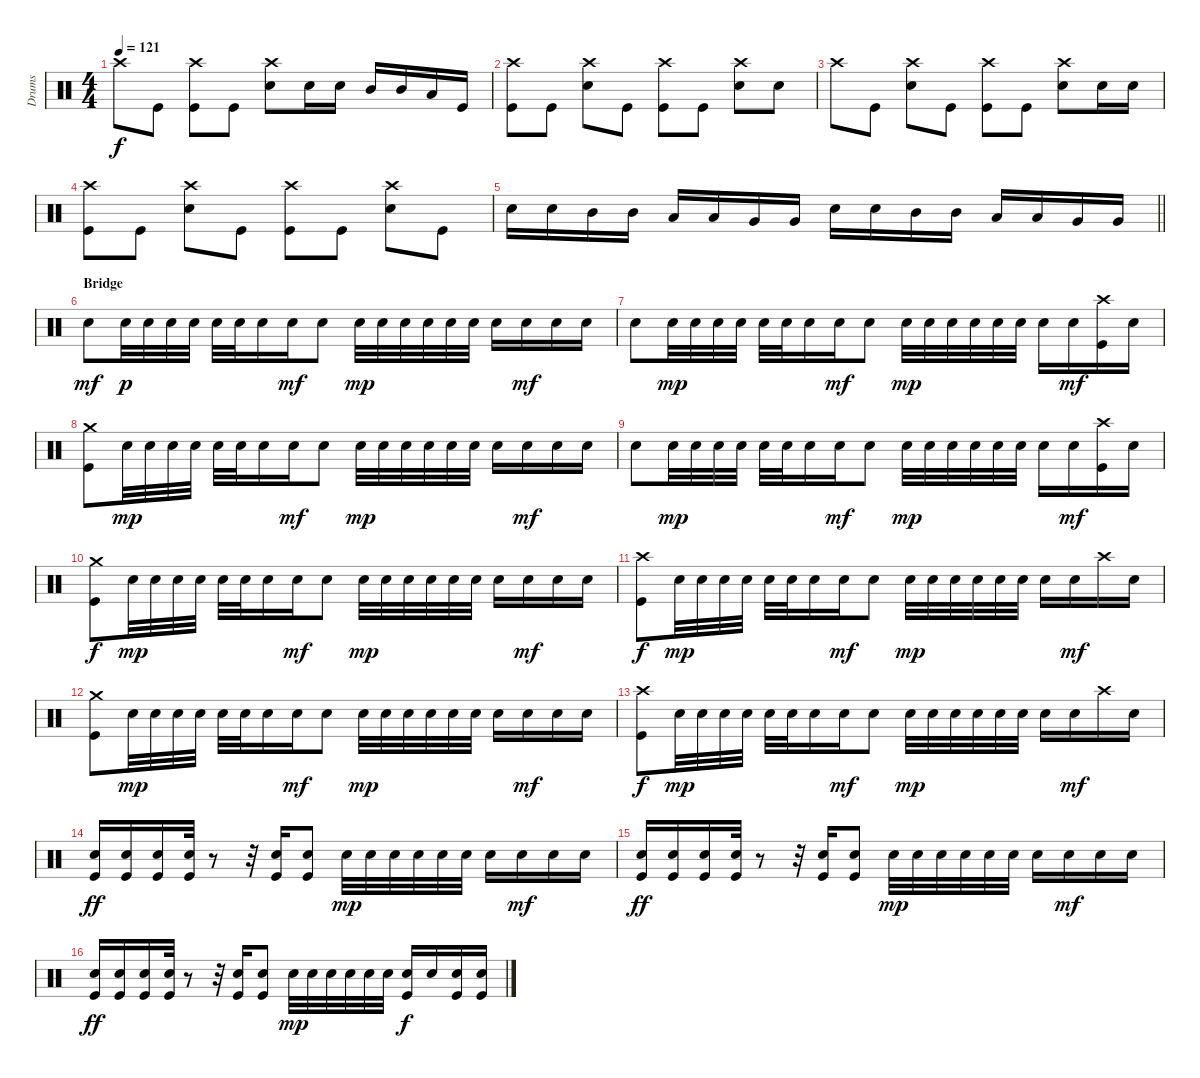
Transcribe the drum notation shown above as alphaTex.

\track ("Drums" "Drums") {instrument percussion}
\staff {score}
\articulation defaults
\ts (4 4)
\tempo 121
\clef neutral
\ks c "Crash high (hit)".8{dy f} "Kick (hit)".8
("Crash high (hit)" "Kick (hit)").8 "Kick (hit)".8 ("Crash high (hit)" "Electric Snare (hit)").8 "Electric Snare (hit)".16 "Electric Snare (hit)".16 "Mid Tom (hit)".16 "Mid Tom (hit)".16 "Low Tom (hit)".16 "Kick (hit)".16 |
("Crash high (hit)" "Kick (hit)").8 "Kick (hit)".8 ("Crash high (hit)" "Electric Snare (hit)").8 "Kick (hit)".8 ("Crash high (hit)" "Kick (hit)").8 "Kick (hit)".8 ("Crash high (hit)" "Electric Snare (hit)").8 "Electric Snare (hit)".8 |
"Crash high (hit)".8 "Kick (hit)".8 ("Crash high (hit)" "Electric Snare (hit)").8 "Kick (hit)".8 ("Crash high (hit)" "Kick (hit)").8 "Kick (hit)".8 ("Crash high (hit)" "Electric Snare (hit)").8 "Electric Snare (hit)".16 "Electric Snare (hit)".16 |
("Crash high (hit)" "Kick (hit)").8 "Kick (hit)".8 ("Crash high (hit)" "Electric Snare (hit)").8 "Kick (hit)".8 ("Crash high (hit)" "Kick (hit)").8 "Kick (hit)".8 ("Crash high (hit)" "Electric Snare (hit)").8 "Kick (hit)".8 |
\barLineRight lightlight "Electric Snare (hit)".16 "Electric Snare (hit)".16 "Mid Tom (hit)".16 "Mid Tom (hit)".16 "Low Tom (hit)".16 "Low Tom (hit)".16 "Very Low Tom (hit)".16 "Very Low Tom (hit)".16 "Electric Snare (hit)".16 "Electric Snare (hit)".16 "Mid Tom (hit)".16 "Mid Tom (hit)".16 "Low Tom (hit)".16 "Low Tom (hit)".16 "Very Low Tom (hit)".16 "Very Low Tom (hit)".16
|
\section ("" "Bridge")
"Electric Snare (hit)".8{dy mf} "Electric Snare (hit)".32{dy p} "Electric Snare (hit)".32 "Electric Snare (hit)".32 "Electric Snare (hit)".32 "Electric Snare (hit)".32 "Electric Snare (hit)".32 "Electric Snare (hit)".16 "Electric Snare (hit)".16{dy mf} "Electric Snare (hit)".8 "Electric Snare (hit)".32{dy mp} "Electric Snare (hit)".32 "Electric Snare (hit)".32 "Electric Snare (hit)".32 "Electric Snare (hit)".32 "Electric Snare (hit)".32 "Electric Snare (hit)".16 "Electric Snare (hit)".16{dy mf} "Electric Snare (hit)".16 "Electric Snare (hit)".16 |
"Electric Snare (hit)".8 "Electric Snare (hit)".32{dy mp} "Electric Snare (hit)".32 "Electric Snare (hit)".32 "Electric Snare (hit)".32 "Electric Snare (hit)".32 "Electric Snare (hit)".32 "Electric Snare (hit)".16 "Electric Snare (hit)".16{dy mf} "Electric Snare (hit)".8 "Electric Snare (hit)".32{dy mp} "Electric Snare (hit)".32 "Electric Snare (hit)".32 "Electric Snare (hit)".32 "Electric Snare (hit)".32 "Electric Snare (hit)".32 "Electric Snare (hit)".16 "Electric Snare (hit)".16{dy mf} ("Crash high (hit)" "Kick (hit)").16 "Electric Snare (hit)".16 |
("Crash medium (hit)" "Kick (hit)").8 "Electric Snare (hit)".32{dy mp} "Electric Snare (hit)".32 "Electric Snare (hit)".32 "Electric Snare (hit)".32 "Electric Snare (hit)".32 "Electric Snare (hit)".32 "Electric Snare (hit)".16 "Electric Snare (hit)".16{dy mf} "Electric Snare (hit)".8 "Electric Snare (hit)".32{dy mp} "Electric Snare (hit)".32 "Electric Snare (hit)".32 "Electric Snare (hit)".32 "Electric Snare (hit)".32 "Electric Snare (hit)".32 "Electric Snare (hit)".16 "Electric Snare (hit)".16{dy mf} "Electric Snare (hit)".16 "Electric Snare (hit)".16 |
"Electric Snare (hit)".8 "Electric Snare (hit)".32{dy mp} "Electric Snare (hit)".32 "Electric Snare (hit)".32 "Electric Snare (hit)".32 "Electric Snare (hit)".32 "Electric Snare (hit)".32 "Electric Snare (hit)".16 "Electric Snare (hit)".16{dy mf} "Electric Snare (hit)".8 "Electric Snare (hit)".32{dy mp} "Electric Snare (hit)".32 "Electric Snare (hit)".32 "Electric Snare (hit)".32 "Electric Snare (hit)".32 "Electric Snare (hit)".32 "Electric Snare (hit)".16 "Electric Snare (hit)".16{dy mf} ("Crash high (hit)" "Kick (hit)").16 "Electric Snare (hit)".16 |
("Crash medium (hit)" "Kick (hit)").8{dy f} "Electric Snare (hit)".32{dy mp} "Electric Snare (hit)".32 "Electric Snare (hit)".32 "Electric Snare (hit)".32 "Electric Snare (hit)".32 "Electric Snare (hit)".32 "Electric Snare (hit)".16 "Electric Snare (hit)".16{dy mf} "Electric Snare (hit)".8 "Electric Snare (hit)".32{dy mp} "Electric Snare (hit)".32 "Electric Snare (hit)".32 "Electric Snare (hit)".32 "Electric Snare (hit)".32 "Electric Snare (hit)".32 "Electric Snare (hit)".16 "Electric Snare (hit)".16{dy mf} "Electric Snare (hit)".16 "Electric Snare (hit)".16 |
("Crash high (hit)" "Kick (hit)").8{dy f} "Electric Snare (hit)".32{dy mp} "Electric Snare (hit)".32 "Electric Snare (hit)".32 "Electric Snare (hit)".32 "Electric Snare (hit)".32 "Electric Snare (hit)".32 "Electric Snare (hit)".16 "Electric Snare (hit)".16{dy mf} "Electric Snare (hit)".8 "Electric Snare (hit)".32{dy mp} "Electric Snare (hit)".32 "Electric Snare (hit)".32 "Electric Snare (hit)".32 "Electric Snare (hit)".32 "Electric Snare (hit)".32 "Electric Snare (hit)".16 "Electric Snare (hit)".16{dy mf} "Crash high (hit)".16 "Electric Snare (hit)".16 |
("Crash medium (hit)" "Kick (hit)").8 "Electric Snare (hit)".32{dy mp} "Electric Snare (hit)".32 "Electric Snare (hit)".32 "Electric Snare (hit)".32 "Electric Snare (hit)".32 "Electric Snare (hit)".32 "Electric Snare (hit)".16 "Electric Snare (hit)".16{dy mf} "Electric Snare (hit)".8 "Electric Snare (hit)".32{dy mp} "Electric Snare (hit)".32 "Electric Snare (hit)".32 "Electric Snare (hit)".32 "Electric Snare (hit)".32 "Electric Snare (hit)".32 "Electric Snare (hit)".16 "Electric Snare (hit)".16{dy mf} "Electric Snare (hit)".16 "Electric Snare (hit)".16 |
("Crash high (hit)" "Kick (hit)").8{dy f} "Electric Snare (hit)".32{dy mp} "Electric Snare (hit)".32 "Electric Snare (hit)".32 "Electric Snare (hit)".32 "Electric Snare (hit)".32 "Electric Snare (hit)".32 "Electric Snare (hit)".16 "Electric Snare (hit)".16{dy mf} "Electric Snare (hit)".8 "Electric Snare (hit)".32{dy mp} "Electric Snare (hit)".32 "Electric Snare (hit)".32 "Electric Snare (hit)".32 "Electric Snare (hit)".32 "Electric Snare (hit)".32 "Electric Snare (hit)".16 "Electric Snare (hit)".16{dy mf} "Crash high (hit)".16 "Electric Snare (hit)".16 |
("Electric Snare (hit)" "Kick (hit)").16{dy ff} ("Electric Snare (hit)" "Kick (hit)").16 ("Electric Snare (hit)" "Kick (hit)").16 ("Electric Snare (hit)" "Kick (hit)").32 r.8 r.32 ("Electric Snare (hit)" "Kick (hit)").16 ("Electric Snare (hit)" "Kick (hit)").8 "Electric Snare (hit)".32{dy mp} "Electric Snare (hit)".32 "Electric Snare (hit)".32 "Electric Snare (hit)".32 "Electric Snare (hit)".32 "Electric Snare (hit)".32 "Electric Snare (hit)".16 "Electric Snare (hit)".16{dy mf} "Electric Snare (hit)".16 "Electric Snare (hit)".16 |
("Electric Snare (hit)" "Kick (hit)").16{dy ff} ("Electric Snare (hit)" "Kick (hit)").16 ("Electric Snare (hit)" "Kick (hit)").16 ("Electric Snare (hit)" "Kick (hit)").32 r.8 r.32 ("Electric Snare (hit)" "Kick (hit)").16 ("Electric Snare (hit)" "Kick (hit)").8 "Electric Snare (hit)".32{dy mp} "Electric Snare (hit)".32 "Electric Snare (hit)".32 "Electric Snare (hit)".32 "Electric Snare (hit)".32 "Electric Snare (hit)".32 "Electric Snare (hit)".16 "Electric Snare (hit)".16{dy mf} "Electric Snare (hit)".16 "Electric Snare (hit)".16 |
("Electric Snare (hit)" "Kick (hit)").16{dy ff} ("Electric Snare (hit)" "Kick (hit)").16 ("Electric Snare (hit)" "Kick (hit)").16 ("Electric Snare (hit)" "Kick (hit)").32 r.8 r.32 ("Electric Snare (hit)" "Kick (hit)").16 ("Electric Snare (hit)" "Kick (hit)").8 "Electric Snare (hit)".32{dy mp} "Electric Snare (hit)".32 "Electric Snare (hit)".32 "Electric Snare (hit)".32 "Electric Snare (hit)".32 "Electric Snare (hit)".32 ("Electric Snare (hit)" "Kick (hit)").16{dy f} "Electric Snare (hit)".16 ("Electric Snare (hit)" "Kick (hit)").16 ("Electric Snare (hit)" "Kick (hit)").16
